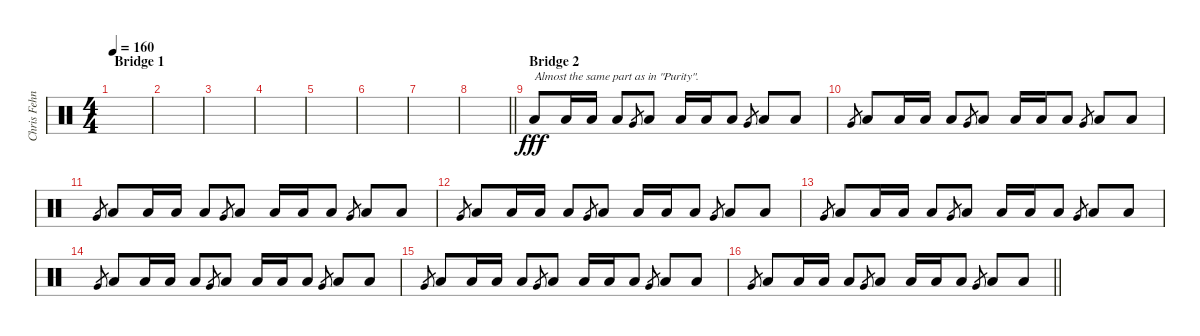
\track ("Chris Fehn" "Chris Fehn") {instrument percussion}
\staff {score}
\articulation defaults
\ts (4 4)
\section ("" "Bridge 1")
\tempo 160
\clef neutral
\ks c
|
|
|
|
|
|
|
\barLineRight lightlight
|
\section ("" "Bridge 2")
"Low Floor Tom (hit)".8{txt "Almost the same part as in \"Purity\"." dy fff} "Low Floor Tom (hit)".16 "Low Floor Tom (hit)".16 "Low Floor Tom (hit)".8 "Very Low Tom (hit)".8{gr} "Low Floor Tom (hit)".8 "Low Floor Tom (hit)".16 "Low Floor Tom (hit)".16 "Low Floor Tom (hit)".8 "Very Low Tom (hit)".8{gr} "Low Floor Tom (hit)".8 "Low Floor Tom (hit)".8 |
"Very Low Tom (hit)".8{gr} "Low Floor Tom (hit)".8 "Low Floor Tom (hit)".16 "Low Floor Tom (hit)".16 "Low Floor Tom (hit)".8 "Very Low Tom (hit)".8{gr} "Low Floor Tom (hit)".8 "Low Floor Tom (hit)".16 "Low Floor Tom (hit)".16 "Low Floor Tom (hit)".8 "Very Low Tom (hit)".8{gr} "Low Floor Tom (hit)".8 "Low Floor Tom (hit)".8 |
"Very Low Tom (hit)".8{gr} "Low Floor Tom (hit)".8 "Low Floor Tom (hit)".16 "Low Floor Tom (hit)".16 "Low Floor Tom (hit)".8 "Very Low Tom (hit)".8{gr} "Low Floor Tom (hit)".8 "Low Floor Tom (hit)".16 "Low Floor Tom (hit)".16 "Low Floor Tom (hit)".8 "Very Low Tom (hit)".8{gr} "Low Floor Tom (hit)".8 "Low Floor Tom (hit)".8 |
"Very Low Tom (hit)".8{gr} "Low Floor Tom (hit)".8 "Low Floor Tom (hit)".16 "Low Floor Tom (hit)".16 "Low Floor Tom (hit)".8 "Very Low Tom (hit)".8{gr} "Low Floor Tom (hit)".8 "Low Floor Tom (hit)".16 "Low Floor Tom (hit)".16 "Low Floor Tom (hit)".8 "Very Low Tom (hit)".8{gr} "Low Floor Tom (hit)".8 "Low Floor Tom (hit)".8 |
"Very Low Tom (hit)".8{gr} "Low Floor Tom (hit)".8 "Low Floor Tom (hit)".16 "Low Floor Tom (hit)".16 "Low Floor Tom (hit)".8 "Very Low Tom (hit)".8{gr} "Low Floor Tom (hit)".8 "Low Floor Tom (hit)".16 "Low Floor Tom (hit)".16 "Low Floor Tom (hit)".8 "Very Low Tom (hit)".8{gr} "Low Floor Tom (hit)".8 "Low Floor Tom (hit)".8 |
"Very Low Tom (hit)".8{gr} "Low Floor Tom (hit)".8 "Low Floor Tom (hit)".16 "Low Floor Tom (hit)".16 "Low Floor Tom (hit)".8 "Very Low Tom (hit)".8{gr} "Low Floor Tom (hit)".8 "Low Floor Tom (hit)".16 "Low Floor Tom (hit)".16 "Low Floor Tom (hit)".8 "Very Low Tom (hit)".8{gr} "Low Floor Tom (hit)".8 "Low Floor Tom (hit)".8 |
"Very Low Tom (hit)".8{gr} "Low Floor Tom (hit)".8 "Low Floor Tom (hit)".16 "Low Floor Tom (hit)".16 "Low Floor Tom (hit)".8 "Very Low Tom (hit)".8{gr} "Low Floor Tom (hit)".8 "Low Floor Tom (hit)".16 "Low Floor Tom (hit)".16 "Low Floor Tom (hit)".8 "Very Low Tom (hit)".8{gr} "Low Floor Tom (hit)".8 "Low Floor Tom (hit)".8 |
\barLineRight lightlight "Very Low Tom (hit)".8{gr} "Low Floor Tom (hit)".8 "Low Floor Tom (hit)".16 "Low Floor Tom (hit)".16 "Low Floor Tom (hit)".8 "Very Low Tom (hit)".8{gr} "Low Floor Tom (hit)".8 "Low Floor Tom (hit)".16 "Low Floor Tom (hit)".16 "Low Floor Tom (hit)".8 "Very Low Tom (hit)".8{gr} "Low Floor Tom (hit)".8 "Low Floor Tom (hit)".8
